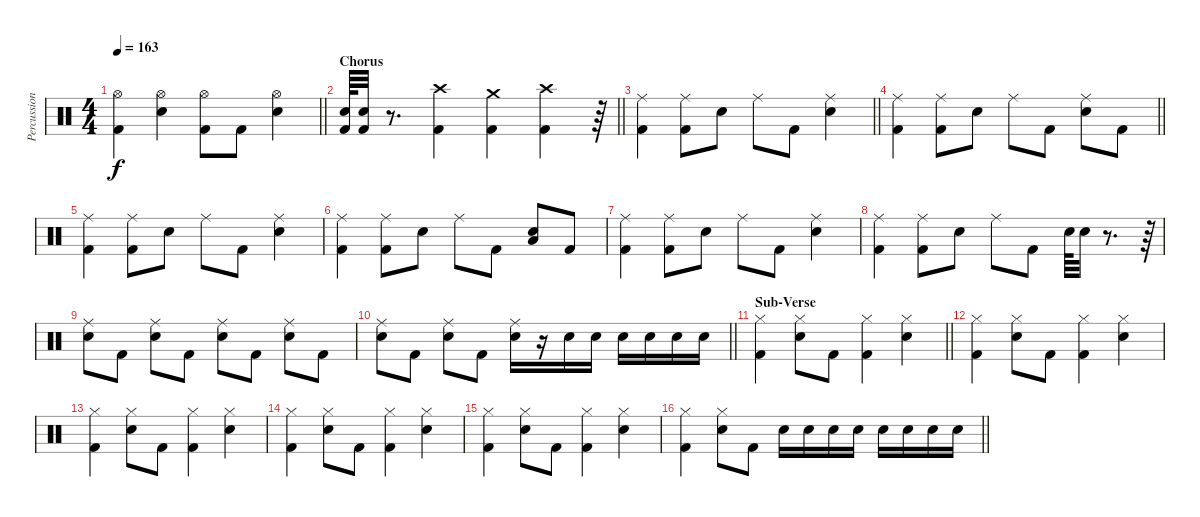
\track ("Percussion" "Percussion") {instrument percussion}
\staff {score}
\articulation defaults
\ts (4 4)
\tempo 163
\clef neutral
\barLineRight lightlight
\ks c
("Hi-Hat (open)" "Kick (hit) 2").4{dy f} ("Hi-Hat (open)" "Electric Snare (hit)").4 ("Hi-Hat (open)" "Kick (hit) 2").8 "Kick (hit) 2".8 ("Hi-Hat (open)" "Electric Snare (hit)").4 |
\section ("" "Chorus")
\barLineRight lightlight
("Electric Snare (hit)" "Kick (hit) 2").64 ("Electric Snare (hit)" "Kick (hit) 2").32 r.8{d} ("Crash high (hit)" "Kick (hit) 2").4 ("Crash medium (hit)" "Kick (hit) 2").4 ("Crash high (hit)" "Kick (hit) 2").4 r.64 |
\barLineRight lightlight
("Ride (middle)" "Kick (hit) 2").4 ("Ride (middle)" "Kick (hit) 2").8 "Electric Snare (hit)".8 "Ride (middle)".8 "Kick (hit) 2".8 ("Ride (middle)" "Electric Snare (hit)").4 |
\barLineRight lightlight
("Ride (middle)" "Kick (hit) 2").4 ("Ride (middle)" "Kick (hit) 2").8 "Electric Snare (hit)".8 "Ride (middle)".8 "Kick (hit) 2".8 ("Electric Snare (hit)" "Ride (middle)").8 "Kick (hit) 2".8 |
("Ride (middle)" "Kick (hit) 2").4 ("Ride (middle)" "Kick (hit) 2").8 "Electric Snare (hit)".8 "Ride (middle)".8 "Kick (hit) 2".8 ("Ride (middle)" "Electric Snare (hit)").4 |
("Ride (middle)" "Kick (hit) 2").4 ("Ride (middle)" "Kick (hit) 2").8 "Electric Snare (hit)".8 "Ride (middle)".8 "Kick (hit) 2".8 ("Low Floor Tom (hit)" "Electric Snare (hit)").8 "Kick (hit) 2".8 |
("Ride (middle)" "Kick (hit) 2").4 ("Ride (middle)" "Kick (hit) 2").8 "Electric Snare (hit)".8 "Ride (middle)".8 "Kick (hit) 2".8 ("Ride (middle)" "Electric Snare (hit)").4 |
("Ride (middle)" "Kick (hit) 2").4 ("Ride (middle)" "Kick (hit) 2").8 "Electric Snare (hit)".8 "Ride (middle)".8 "Kick (hit) 2".8 "Electric Snare (hit)".64 "Electric Snare (hit)".32 r.8{d} r.64 |
("Ride (middle)" "Electric Snare (hit)").8 "Kick (hit) 2".8 ("Ride (middle)" "Electric Snare (hit)").8 "Kick (hit) 2".8 ("Ride (middle)" "Electric Snare (hit)").8 "Kick (hit) 2".8 ("Ride (middle)" "Electric Snare (hit)").8 "Kick (hit) 2".8 |
\barLineRight lightlight
("Ride (middle)" "Electric Snare (hit)").8 "Kick (hit) 2".8 ("Ride (middle)" "Electric Snare (hit)").8 "Kick (hit) 2".8 ("Ride (middle)" "Electric Snare (hit)").16 r.16 "Electric Snare (hit)".16 "Electric Snare (hit)".16 "Electric Snare (hit)".16 "Electric Snare (hit)".16 "Electric Snare (hit)".16 "Electric Snare (hit)".16 |
\section ("" "Sub-Verse")
\barLineRight lightlight
("Hi-Hat (closed)" "Kick (hit) 2").4 ("Hi-Hat (closed)" "Electric Snare (hit)").8 "Kick (hit) 2".8 ("Hi-Hat (closed)" "Kick (hit) 2").4 ("Hi-Hat (closed)" "Electric Snare (hit)").4 |
("Hi-Hat (closed)" "Kick (hit) 2").4 ("Hi-Hat (closed)" "Electric Snare (hit)").8 "Kick (hit) 2".8 ("Hi-Hat (closed)" "Kick (hit) 2").4 ("Hi-Hat (closed)" "Electric Snare (hit)").4 |
("Hi-Hat (closed)" "Kick (hit) 2").4 ("Hi-Hat (closed)" "Electric Snare (hit)").8 "Kick (hit) 2".8 ("Hi-Hat (closed)" "Kick (hit) 2").4 ("Hi-Hat (closed)" "Electric Snare (hit)").4 |
("Hi-Hat (closed)" "Kick (hit) 2").4 ("Hi-Hat (closed)" "Electric Snare (hit)").8 "Kick (hit) 2".8 ("Hi-Hat (closed)" "Kick (hit) 2").4 ("Hi-Hat (closed)" "Electric Snare (hit)").4 |
("Hi-Hat (closed)" "Kick (hit) 2").4 ("Hi-Hat (closed)" "Electric Snare (hit)").8 "Kick (hit) 2".8 ("Hi-Hat (closed)" "Kick (hit) 2").4 ("Hi-Hat (closed)" "Electric Snare (hit)").4 |
\barLineRight lightlight
("Hi-Hat (closed)" "Kick (hit) 2").4 ("Hi-Hat (closed)" "Electric Snare (hit)").8 "Kick (hit) 2".8 "Electric Snare (hit)".16 "Electric Snare (hit)".16 "Electric Snare (hit)".16 "Electric Snare (hit)".16 "Electric Snare (hit)".16 "Electric Snare (hit)".16 "Electric Snare (hit)".16 "Electric Snare (hit)".16
